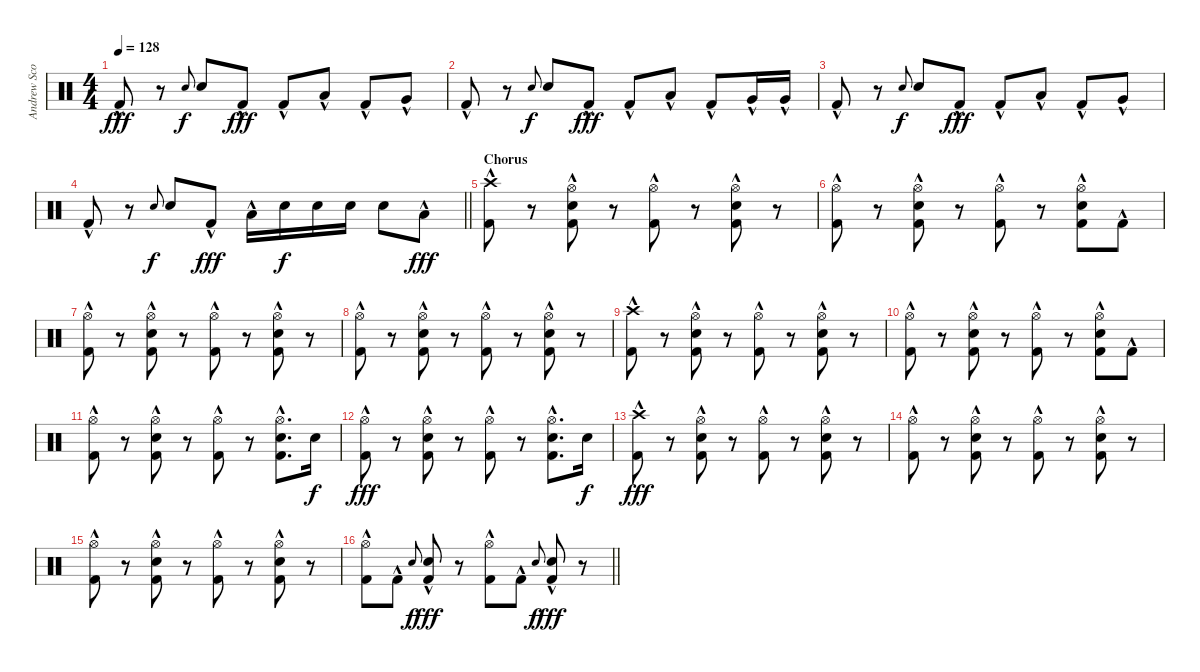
\track ("Andrew Scott" "Andrew Sco") {instrument percussion}
\staff {score}
\articulation defaults
\ts (4 4)
\tempo 128
\clef neutral
\ks c "Kick (hit) 2"{hac}.8{dy fff}
r.8 "Snare (hit) 2".8{gr onbeat dy f} "Snare (hit) 2".8 "Kick (hit) 2"{hac}.8{dy fff} "Kick (hit) 2"{hac}.8 "Low Tom (hit)"{hac}.8 "Kick (hit) 2"{hac}.8 "Very Low Tom (hit)"{hac}.8 |
"Kick (hit) 2"{hac}.8 r.8 "Snare (hit) 2".8{gr onbeat dy f} "Snare (hit) 2".8 "Kick (hit) 2"{hac}.8{dy fff} "Kick (hit) 2"{hac}.8 "Low Tom (hit)"{hac}.8 "Kick (hit) 2"{hac}.8 "Very Low Tom (hit)"{hac}.16 "Very Low Tom (hit)"{hac}.16 |
"Kick (hit) 2"{hac}.8 r.8 "Snare (hit) 2".8{gr onbeat dy f} "Snare (hit) 2".8 "Kick (hit) 2"{hac}.8{dy fff} "Kick (hit) 2"{hac}.8 "Low Tom (hit)"{hac}.8 "Kick (hit) 2"{hac}.8 "Very Low Tom (hit)"{hac}.8 |
\barLineRight lightlight "Kick (hit) 2"{hac}.8
r.8 "Snare (hit) 2".8{gr onbeat dy f} "Snare (hit) 2".8 "Kick (hit) 2"{hac}.8{dy fff} "Low Tom (hit)"{hac}.16 "Snare (hit) 2".16{dy f} "Snare (hit) 2".16 "Snare (hit) 2".16 "Snare (hit) 2".8 "Low Tom (hit)"{hac}.8{dy fff} |
\section ("" "Chorus")
("Crash high (hit)" "Kick (hit) 2"{hac}).8 r.8 ("Hi-Hat (open)" "Snare (hit) 2" "Kick (hit) 2"{hac}).8 r.8 ("Hi-Hat (open)" "Kick (hit) 2"{hac}).8 r.8 ("Hi-Hat (open)" "Snare (hit) 2" "Kick (hit) 2"{hac}).8 r.8 |
("Hi-Hat (open)" "Kick (hit) 2"{hac}).8 r.8 ("Hi-Hat (open)" "Snare (hit) 2" "Kick (hit) 2"{hac}).8 r.8 ("Hi-Hat (open)" "Kick (hit) 2"{hac}).8 r.8 ("Hi-Hat (open)" "Snare (hit) 2" "Kick (hit) 2"{hac}).8 "Kick (hit) 2"{hac}.8 |
("Hi-Hat (open)" "Kick (hit) 2"{hac}).8 r.8 ("Hi-Hat (open)" "Snare (hit) 2" "Kick (hit) 2"{hac}).8 r.8 ("Hi-Hat (open)" "Kick (hit) 2"{hac}).8 r.8 ("Hi-Hat (open)" "Snare (hit) 2" "Kick (hit) 2"{hac}).8 r.8 |
("Hi-Hat (open)" "Kick (hit) 2"{hac}).8 r.8 ("Hi-Hat (open)" "Snare (hit) 2" "Kick (hit) 2"{hac}).8 r.8 ("Hi-Hat (open)" "Kick (hit) 2"{hac}).8 r.8 ("Hi-Hat (open)" "Snare (hit) 2" "Kick (hit) 2"{hac}).8 r.8 |
("Crash high (hit)" "Kick (hit) 2"{hac}).8 r.8 ("Hi-Hat (open)" "Snare (hit) 2" "Kick (hit) 2"{hac}).8 r.8 ("Hi-Hat (open)" "Kick (hit) 2"{hac}).8 r.8 ("Hi-Hat (open)" "Snare (hit) 2" "Kick (hit) 2"{hac}).8 r.8 |
("Hi-Hat (open)" "Kick (hit) 2"{hac}).8 r.8 ("Hi-Hat (open)" "Snare (hit) 2" "Kick (hit) 2"{hac}).8 r.8 ("Hi-Hat (open)" "Kick (hit) 2"{hac}).8 r.8 ("Hi-Hat (open)" "Snare (hit) 2" "Kick (hit) 2"{hac}).8 "Kick (hit) 2"{hac}.8 |
("Hi-Hat (open)" "Kick (hit) 2"{hac}).8 r.8 ("Hi-Hat (open)" "Snare (hit) 2" "Kick (hit) 2"{hac}).8 r.8 ("Hi-Hat (open)" "Kick (hit) 2"{hac}).8 r.8 ("Hi-Hat (open)" "Snare (hit) 2" "Kick (hit) 2"{hac}).8{d} "Snare (hit) 2".16{dy f} |
("Hi-Hat (open)" "Kick (hit) 2"{hac}).8{dy fff} r.8 ("Hi-Hat (open)" "Snare (hit) 2" "Kick (hit) 2"{hac}).8 r.8 ("Hi-Hat (open)" "Kick (hit) 2"{hac}).8 r.8 ("Hi-Hat (open)" "Snare (hit) 2" "Kick (hit) 2"{hac}).8{d} "Snare (hit) 2".16{dy f} |
("Crash high (hit)" "Kick (hit) 2"{hac}).8{dy fff} r.8 ("Hi-Hat (open)" "Snare (hit) 2" "Kick (hit) 2"{hac}).8 r.8 ("Hi-Hat (open)" "Kick (hit) 2"{hac}).8 r.8 ("Hi-Hat (open)" "Snare (hit) 2" "Kick (hit) 2"{hac}).8 r.8 |
("Hi-Hat (open)" "Kick (hit) 2"{hac}).8 r.8 ("Hi-Hat (open)" "Snare (hit) 2" "Kick (hit) 2"{hac}).8 r.8 ("Hi-Hat (open)" "Kick (hit) 2"{hac}).8 r.8 ("Hi-Hat (open)" "Snare (hit) 2" "Kick (hit) 2"{hac}).8 r.8 |
("Hi-Hat (open)" "Kick (hit) 2"{hac}).8 r.8 ("Hi-Hat (open)" "Snare (hit) 2" "Kick (hit) 2"{hac}).8 r.8 ("Hi-Hat (open)" "Kick (hit) 2"{hac}).8 r.8 ("Hi-Hat (open)" "Snare (hit) 2" "Kick (hit) 2"{hac}).8 r.8 |
\barLineRight lightlight
("Hi-Hat (open)" "Kick (hit) 2"{hac}).8 "Kick (hit) 2"{hac}.8 "Snare (hit) 2".8{gr onbeat dy f} ("Snare (hit) 2" "Kick (hit) 2"{hac}).8{dy fff} r.8 ("Hi-Hat (open)" "Kick (hit) 2"{hac}).8 "Kick (hit) 2"{hac}.8 "Snare (hit) 2".8{gr onbeat dy f} ("Snare (hit) 2" "Kick (hit) 2"{hac}).8{dy fff} r.8
